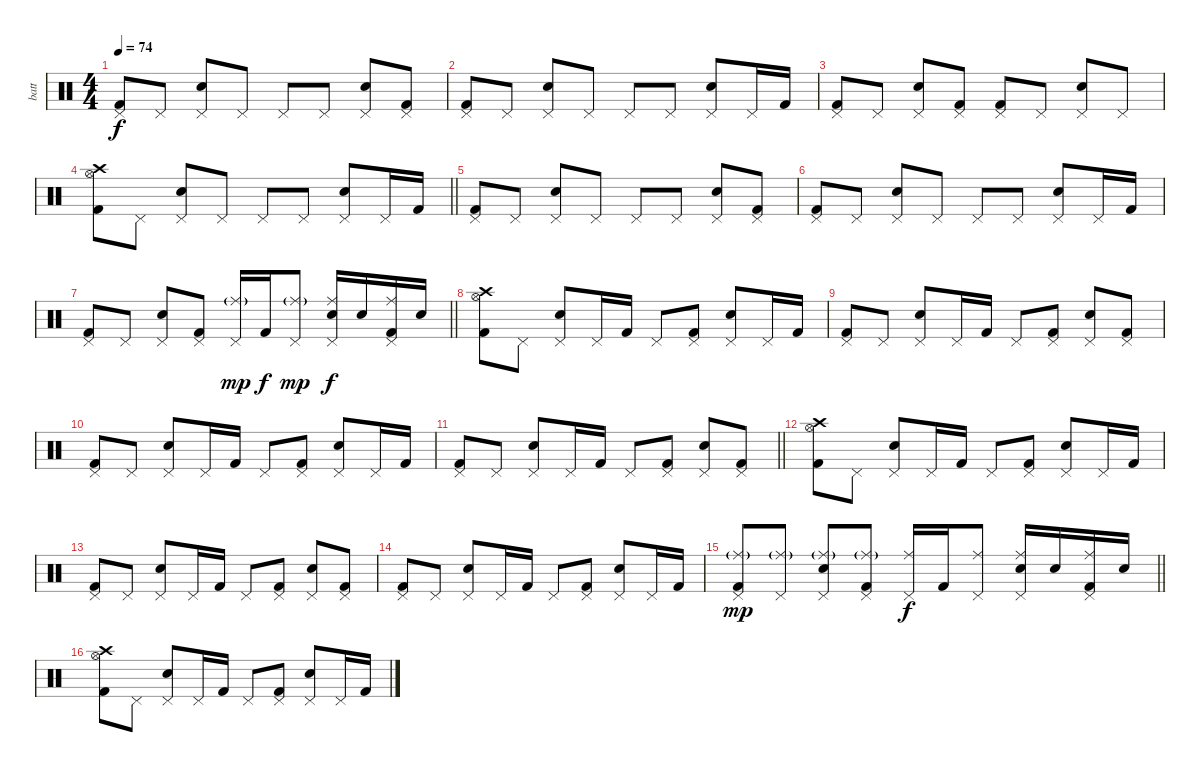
\track ("batt" "batt") {instrument percussion}
\staff {score}
\articulation defaults
\ts (4 4)
\tempo 74
\clef neutral
\ks c
("Pedal Hi-Hat (hit)" "Kick (hit) 2").8{dy f} "Pedal Hi-Hat (hit)".8 ("Pedal Hi-Hat (hit)" "Electric Snare (hit)").8 "Pedal Hi-Hat (hit)".8 "Pedal Hi-Hat (hit)".8 "Pedal Hi-Hat (hit)".8 ("Pedal Hi-Hat (hit)" "Electric Snare (hit)").8 ("Pedal Hi-Hat (hit)" "Kick (hit) 2").8 |
("Pedal Hi-Hat (hit)" "Kick (hit) 2").8 "Pedal Hi-Hat (hit)".8 ("Pedal Hi-Hat (hit)" "Electric Snare (hit)").8 "Pedal Hi-Hat (hit)".8 "Pedal Hi-Hat (hit)".8 "Pedal Hi-Hat (hit)".8 ("Pedal Hi-Hat (hit)" "Electric Snare (hit)").8 "Pedal Hi-Hat (hit)".16 "Kick (hit) 2".16 |
("Pedal Hi-Hat (hit)" "Kick (hit) 2").8 "Pedal Hi-Hat (hit)".8 ("Pedal Hi-Hat (hit)" "Electric Snare (hit)").8 ("Pedal Hi-Hat (hit)" "Kick (hit) 2").8 ("Pedal Hi-Hat (hit)" "Kick (hit) 2").8 "Pedal Hi-Hat (hit)".8 ("Pedal Hi-Hat (hit)" "Electric Snare (hit)").8 "Pedal Hi-Hat (hit)".8 |
\barLineRight lightlight
("Crash high (hit)" "Hi-Hat (open)" "Kick (hit) 2").8 "Pedal Hi-Hat (hit)".8 ("Pedal Hi-Hat (hit)" "Electric Snare (hit)").8 "Pedal Hi-Hat (hit)".8 "Pedal Hi-Hat (hit)".8 "Pedal Hi-Hat (hit)".8 ("Pedal Hi-Hat (hit)" "Electric Snare (hit)").8 "Pedal Hi-Hat (hit)".16 "Kick (hit) 2".16 |
("Pedal Hi-Hat (hit)" "Kick (hit) 2").8 "Pedal Hi-Hat (hit)".8 ("Pedal Hi-Hat (hit)" "Electric Snare (hit)").8 "Pedal Hi-Hat (hit)".8 "Pedal Hi-Hat (hit)".8 "Pedal Hi-Hat (hit)".8 ("Pedal Hi-Hat (hit)" "Electric Snare (hit)").8 ("Pedal Hi-Hat (hit)" "Kick (hit) 2").8 |
("Pedal Hi-Hat (hit)" "Kick (hit) 2").8 "Pedal Hi-Hat (hit)".8 ("Pedal Hi-Hat (hit)" "Electric Snare (hit)").8 "Pedal Hi-Hat (hit)".8 "Pedal Hi-Hat (hit)".8 "Pedal Hi-Hat (hit)".8 ("Pedal Hi-Hat (hit)" "Electric Snare (hit)").8 "Pedal Hi-Hat (hit)".16 "Kick (hit) 2".16 |
\barLineRight lightlight
("Pedal Hi-Hat (hit)" "Kick (hit) 2").8 "Pedal Hi-Hat (hit)".8 ("Pedal Hi-Hat (hit)" "Electric Snare (hit)").8 ("Pedal Hi-Hat (hit)" "Kick (hit) 2").8 ("Pedal Hi-Hat (hit)" "Ride (middle)"{g}).16{dy mp} "Kick (hit) 2".16{dy f} ("Pedal Hi-Hat (hit)" "Ride (middle)"{g}).8{dy mp} ("Pedal Hi-Hat (hit)" "Ride (middle)" "Electric Snare (hit)").16{dy f} "Electric Snare (hit)".16 ("Pedal Hi-Hat (hit)" "Ride (middle)" "Kick (hit) 2").16 "Electric Snare (hit)".16 |
("Crash high (hit)" "Hi-Hat (open)" "Kick (hit) 2").8 "Pedal Hi-Hat (hit)".8 ("Pedal Hi-Hat (hit)" "Electric Snare (hit)").8 "Pedal Hi-Hat (hit)".16 "Kick (hit) 2".16 "Pedal Hi-Hat (hit)".8 ("Pedal Hi-Hat (hit)" "Kick (hit) 2").8 ("Pedal Hi-Hat (hit)" "Electric Snare (hit)").8 "Pedal Hi-Hat (hit)".16 "Kick (hit) 2".16 |
("Pedal Hi-Hat (hit)" "Kick (hit) 2").8 "Pedal Hi-Hat (hit)".8 ("Pedal Hi-Hat (hit)" "Electric Snare (hit)").8 "Pedal Hi-Hat (hit)".16 "Kick (hit) 2".16 "Pedal Hi-Hat (hit)".8 ("Pedal Hi-Hat (hit)" "Kick (hit) 2").8 ("Pedal Hi-Hat (hit)" "Electric Snare (hit)").8 ("Pedal Hi-Hat (hit)" "Kick (hit) 2").8 |
("Pedal Hi-Hat (hit)" "Kick (hit) 2").8 "Pedal Hi-Hat (hit)".8 ("Pedal Hi-Hat (hit)" "Electric Snare (hit)").8 "Pedal Hi-Hat (hit)".16 "Kick (hit) 2".16 "Pedal Hi-Hat (hit)".8 ("Pedal Hi-Hat (hit)" "Kick (hit) 2").8 ("Pedal Hi-Hat (hit)" "Electric Snare (hit)").8 "Pedal Hi-Hat (hit)".16 "Kick (hit) 2".16 |
\barLineRight lightlight
("Pedal Hi-Hat (hit)" "Kick (hit) 2").8 "Pedal Hi-Hat (hit)".8 ("Pedal Hi-Hat (hit)" "Electric Snare (hit)").8 "Pedal Hi-Hat (hit)".16 "Kick (hit) 2".16 "Pedal Hi-Hat (hit)".8 ("Pedal Hi-Hat (hit)" "Kick (hit) 2").8 ("Pedal Hi-Hat (hit)" "Electric Snare (hit)").8 ("Pedal Hi-Hat (hit)" "Kick (hit) 2").8 |
("Crash high (hit)" "Hi-Hat (open)" "Kick (hit) 2").8 "Pedal Hi-Hat (hit)".8 ("Pedal Hi-Hat (hit)" "Electric Snare (hit)").8 "Pedal Hi-Hat (hit)".16 "Kick (hit) 2".16 "Pedal Hi-Hat (hit)".8 ("Pedal Hi-Hat (hit)" "Kick (hit) 2").8 ("Pedal Hi-Hat (hit)" "Electric Snare (hit)").8 "Pedal Hi-Hat (hit)".16 "Kick (hit) 2".16 |
("Pedal Hi-Hat (hit)" "Kick (hit) 2").8 "Pedal Hi-Hat (hit)".8 ("Pedal Hi-Hat (hit)" "Electric Snare (hit)").8 "Pedal Hi-Hat (hit)".16 "Kick (hit) 2".16 "Pedal Hi-Hat (hit)".8 ("Pedal Hi-Hat (hit)" "Kick (hit) 2").8 ("Pedal Hi-Hat (hit)" "Electric Snare (hit)").8 ("Pedal Hi-Hat (hit)" "Kick (hit) 2").8 |
("Pedal Hi-Hat (hit)" "Kick (hit) 2").8 "Pedal Hi-Hat (hit)".8 ("Pedal Hi-Hat (hit)" "Electric Snare (hit)").8 "Pedal Hi-Hat (hit)".16 "Kick (hit) 2".16 "Pedal Hi-Hat (hit)".8 ("Pedal Hi-Hat (hit)" "Kick (hit) 2").8 ("Pedal Hi-Hat (hit)" "Electric Snare (hit)").8 "Pedal Hi-Hat (hit)".16 "Kick (hit) 2".16 |
\barLineRight lightlight
("Pedal Hi-Hat (hit)" "Ride (middle)"{g} "Kick (hit) 2").8{dy mp} ("Pedal Hi-Hat (hit)" "Ride (middle)"{g}).8 ("Pedal Hi-Hat (hit)" "Ride (middle)"{g} "Electric Snare (hit)").8 ("Pedal Hi-Hat (hit)" "Ride (middle)"{g} "Kick (hit) 2").8 ("Pedal Hi-Hat (hit)" "Ride (middle)").16{dy f} "Kick (hit) 2".16 ("Pedal Hi-Hat (hit)" "Ride (middle)").8 ("Pedal Hi-Hat (hit)" "Ride (middle)" "Electric Snare (hit)").16 "Electric Snare (hit)".16 ("Pedal Hi-Hat (hit)" "Ride (middle)" "Kick (hit) 2").16 "Electric Snare (hit)".16 |
("Crash high (hit)" "Hi-Hat (open)" "Kick (hit) 2").8 "Pedal Hi-Hat (hit)".8 ("Pedal Hi-Hat (hit)" "Electric Snare (hit)").8 "Pedal Hi-Hat (hit)".16 "Kick (hit) 2".16 "Pedal Hi-Hat (hit)".8 ("Pedal Hi-Hat (hit)" "Kick (hit) 2").8 ("Pedal Hi-Hat (hit)" "Electric Snare (hit)").8 "Pedal Hi-Hat (hit)".16 "Kick (hit) 2".16
